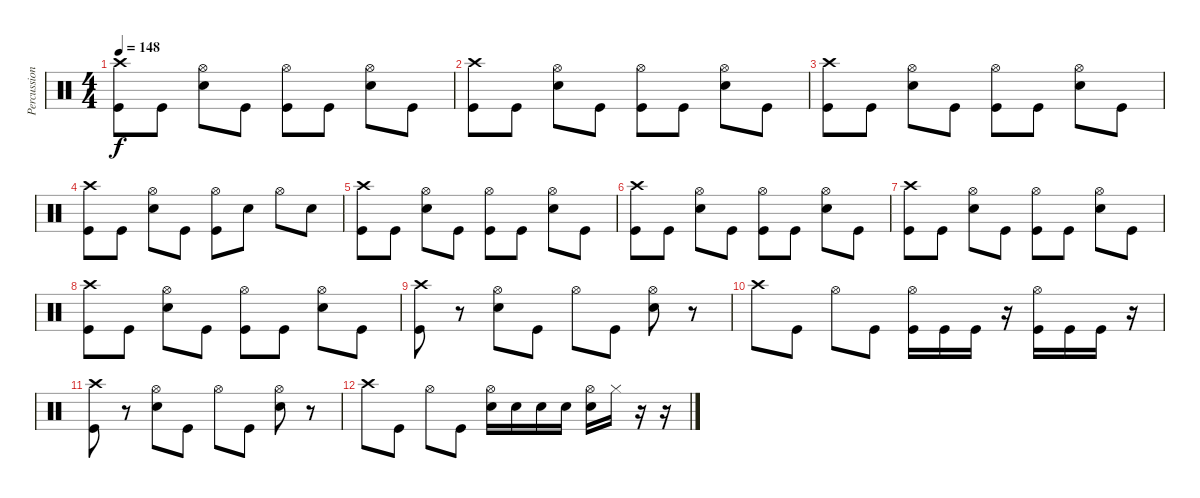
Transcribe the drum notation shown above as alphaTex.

\track ("Percussion" "Percussion") {instrument percussion}
\staff {score}
\articulation defaults
\ts (4 4)
\tempo 148
\clef neutral
\ks c
("Crash high (hit)" "Kick (hit)").8{dy f} "Kick (hit)".8 ("Hi-Hat (open)" "Snare (hit) 2").8 "Kick (hit)".8 ("Hi-Hat (open)" "Kick (hit)").8 "Kick (hit)".8 ("Hi-Hat (open)" "Snare (hit) 2").8 "Kick (hit)".8 |
("Crash high (hit)" "Kick (hit)").8 "Kick (hit)".8 ("Hi-Hat (open)" "Snare (hit) 2").8 "Kick (hit)".8 ("Hi-Hat (open)" "Kick (hit)").8 "Kick (hit)".8 ("Hi-Hat (open)" "Snare (hit) 2").8 "Kick (hit)".8 |
("Crash high (hit)" "Kick (hit)").8 "Kick (hit)".8 ("Hi-Hat (open)" "Snare (hit) 2").8 "Kick (hit)".8 ("Hi-Hat (open)" "Kick (hit)").8 "Kick (hit)".8 ("Hi-Hat (open)" "Snare (hit) 2").8 "Kick (hit)".8 |
("Crash high (hit)" "Kick (hit)").8 "Kick (hit)".8 ("Hi-Hat (open)" "Snare (hit) 2").8 "Kick (hit)".8 ("Hi-Hat (open)" "Kick (hit)").8 "Snare (hit) 2".8 "Hi-Hat (open)".8 "Snare (hit) 2".8 |
("Crash high (hit)" "Kick (hit)").8 "Kick (hit)".8 ("Hi-Hat (open)" "Snare (hit) 2").8 "Kick (hit)".8 ("Hi-Hat (open)" "Kick (hit)").8 "Kick (hit)".8 ("Hi-Hat (open)" "Snare (hit) 2").8 "Kick (hit)".8 |
("Crash high (hit)" "Kick (hit)").8 "Kick (hit)".8 ("Hi-Hat (open)" "Snare (hit) 2").8 "Kick (hit)".8 ("Hi-Hat (open)" "Kick (hit)").8 "Kick (hit)".8 ("Hi-Hat (open)" "Snare (hit) 2").8 "Kick (hit)".8 |
("Crash high (hit)" "Kick (hit)").8 "Kick (hit)".8 ("Hi-Hat (open)" "Snare (hit) 2").8 "Kick (hit)".8 ("Hi-Hat (open)" "Kick (hit)").8 "Kick (hit)".8 ("Hi-Hat (open)" "Snare (hit) 2").8 "Kick (hit)".8 |
("Crash high (hit)" "Kick (hit)").8 "Kick (hit)".8 ("Hi-Hat (open)" "Snare (hit) 2").8 "Kick (hit)".8 ("Hi-Hat (open)" "Kick (hit)").8 "Kick (hit)".8 ("Hi-Hat (open)" "Snare (hit) 2").8 "Kick (hit)".8 |
("Crash high (hit)" "Kick (hit)").8 r.8 ("Hi-Hat (open)" "Snare (hit) 2").8 "Kick (hit)".8 "Hi-Hat (open)".8 "Kick (hit)".8 ("Hi-Hat (open)" "Snare (hit) 2").8 r.8 |
"Crash high (hit)".8 "Kick (hit)".8 "Hi-Hat (open)".8 "Kick (hit)".8 ("Hi-Hat (open)" "Kick (hit)").16 "Kick (hit)".16 "Kick (hit)".16 r.16 ("Hi-Hat (open)" "Kick (hit)").16 "Kick (hit)".16 "Kick (hit)".16 r.16 |
("Crash high (hit)" "Kick (hit)").8 r.8 ("Hi-Hat (open)" "Snare (hit) 2").8 "Kick (hit)".8 "Hi-Hat (open)".8 "Kick (hit)".8 ("Hi-Hat (open)" "Snare (hit) 2").8 r.8 |
"Crash high (hit)".8 "Kick (hit)".8 "Hi-Hat (open)".8 "Kick (hit)".8 ("Hi-Hat (open)" "Snare (hit) 2").16 "Snare (hit) 2".16 "Snare (hit) 2".16 "Snare (hit) 2".16 ("Hi-Hat (open)" "Snare (hit) 2").16 "Hi-Hat (closed)".16 r.16 r.16
